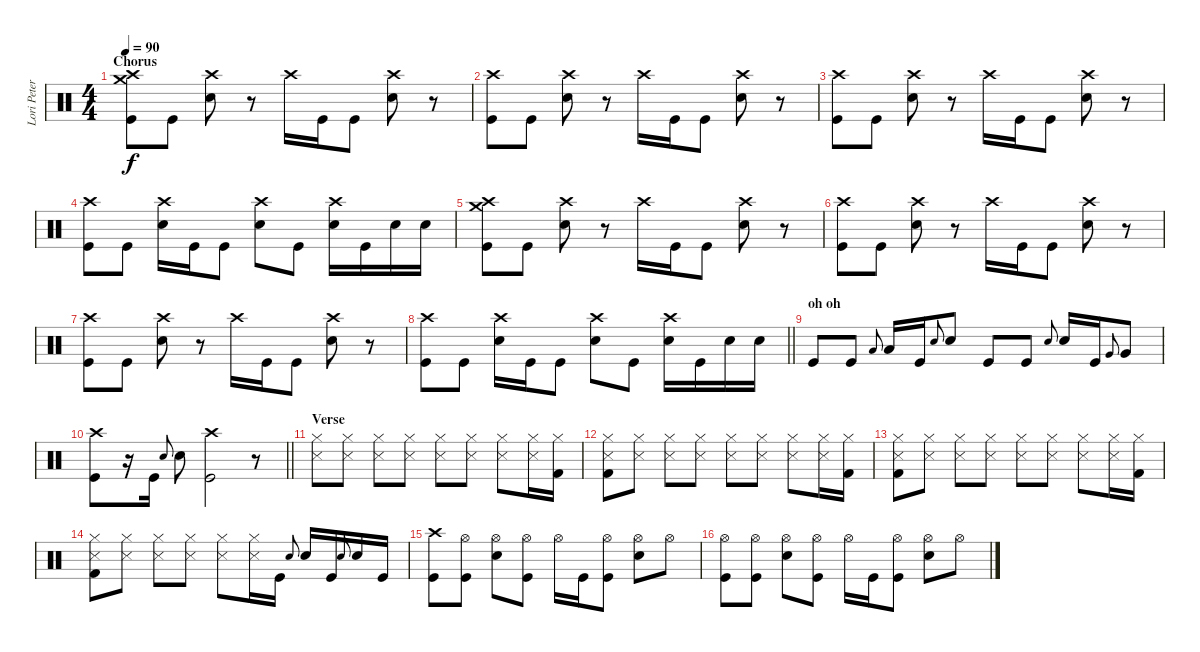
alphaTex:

\track ("Lori Peters" "Lori Peter") {instrument percussion}
\staff {score}
\articulation defaults
\ts (4 4)
\section ("" "Chorus")
\tempo 90
\clef neutral
\ks c
("Crash high (hit)" "Crash medium (hit)" "Kick (hit)").8{dy f volume 11} "Kick (hit)".8 ("Crash high (hit)" "Electric Snare (hit)").8 r.8 "Crash high (hit)".16 "Kick (hit)".16 "Kick (hit)".8 ("Crash high (hit)" "Electric Snare (hit)").8 r.8 |
("Crash high (hit)" "Kick (hit)").8 "Kick (hit)".8 ("Crash high (hit)" "Electric Snare (hit)").8 r.8 "Crash high (hit)".16 "Kick (hit)".16 "Kick (hit)".8 ("Crash high (hit)" "Electric Snare (hit)").8 r.8 |
("Crash high (hit)" "Kick (hit)").8 "Kick (hit)".8 ("Crash high (hit)" "Electric Snare (hit)").8 r.8 "Crash high (hit)".16 "Kick (hit)".16 "Kick (hit)".8 ("Crash high (hit)" "Electric Snare (hit)").8 r.8 |
("Crash high (hit)" "Kick (hit)").8 "Kick (hit)".8 ("Crash high (hit)" "Electric Snare (hit)").16 "Kick (hit)".16 "Kick (hit)".8 ("Crash high (hit)" "Electric Snare (hit)").8 "Kick (hit)".8 ("Crash high (hit)" "Electric Snare (hit)").16 "Kick (hit)".16 "Electric Snare (hit)".16 "Electric Snare (hit)".16 |
("Crash high (hit)" "Crash medium (hit)" "Kick (hit)").8 "Kick (hit)".8 ("Crash high (hit)" "Electric Snare (hit)").8 r.8 "Crash high (hit)".16 "Kick (hit)".16 "Kick (hit)".8 ("Crash high (hit)" "Electric Snare (hit)").8 r.8 |
("Crash high (hit)" "Kick (hit)").8 "Kick (hit)".8 ("Crash high (hit)" "Electric Snare (hit)").8 r.8 "Crash high (hit)".16 "Kick (hit)".16 "Kick (hit)".8 ("Crash high (hit)" "Electric Snare (hit)").8 r.8 |
("Crash high (hit)" "Kick (hit)").8 "Kick (hit)".8 ("Crash high (hit)" "Electric Snare (hit)").8 r.8 "Crash high (hit)".16 "Kick (hit)".16 "Kick (hit)".8 ("Crash high (hit)" "Electric Snare (hit)").8 r.8 |
\barLineRight lightlight
("Crash high (hit)" "Kick (hit)").8 "Kick (hit)".8 ("Crash high (hit)" "Electric Snare (hit)").16 "Kick (hit)".16 "Kick (hit)".8 ("Crash high (hit)" "Electric Snare (hit)").8 "Kick (hit)".8 ("Crash high (hit)" "Electric Snare (hit)").16 "Kick (hit)".16 "Electric Snare (hit)".16 "Electric Snare (hit)".16 |
\section ("" "oh oh")
"Kick (hit)".8 "Kick (hit)".8 "Low Tom (hit)".8{gr onbeat} "Low Tom (hit)".16 "Kick (hit)".16 "Electric Snare (hit)".8{gr onbeat} "Electric Snare (hit)".8 "Kick (hit)".8 "Kick (hit)".8 "Electric Snare (hit)".8{gr onbeat} "Electric Snare (hit)".16 "Kick (hit)".16 "Very Low Tom (hit)".8{gr onbeat} "Very Low Tom (hit)".8 |
\barLineRight lightlight
("Crash high (hit)" "Kick (hit)").8 r.16 "Kick (hit)".16 "Electric Snare (hit)".8{gr onbeat} "Electric Snare (hit)".8 ("Crash high (hit)" "Kick (hit)").2 r.8 |
\section ("" "Verse")
("Hi-Hat (closed)" "Snare (side stick) 3").8 ("Hi-Hat (closed)" "Snare (side stick) 3").8 ("Hi-Hat (closed)" "Snare (side stick) 3").8 ("Hi-Hat (closed)" "Snare (side stick) 3").8 ("Hi-Hat (closed)" "Snare (side stick) 3").8 ("Hi-Hat (closed)" "Snare (side stick) 3").8 ("Hi-Hat (closed)" "Snare (side stick) 3").8 ("Hi-Hat (closed)" "Snare (side stick) 3").16 ("Hi-Hat (closed)" "Kick (hit) 2").16 |
("Hi-Hat (closed)" "Snare (side stick) 3" "Kick (hit) 2").8 ("Hi-Hat (closed)" "Snare (side stick) 3").8 ("Hi-Hat (closed)" "Snare (side stick) 3").8 ("Hi-Hat (closed)" "Snare (side stick) 3").8 ("Hi-Hat (closed)" "Snare (side stick) 3").8 ("Hi-Hat (closed)" "Snare (side stick) 3").8 ("Hi-Hat (closed)" "Snare (side stick) 3").8 ("Hi-Hat (closed)" "Snare (side stick) 3").16 ("Hi-Hat (closed)" "Kick (hit) 2").16 |
("Hi-Hat (closed)" "Snare (side stick) 3" "Kick (hit) 2").8 ("Hi-Hat (closed)" "Snare (side stick) 3").8 ("Hi-Hat (closed)" "Snare (side stick) 3").8 ("Hi-Hat (closed)" "Snare (side stick) 3").8 ("Hi-Hat (closed)" "Snare (side stick) 3").8 ("Hi-Hat (closed)" "Snare (side stick) 3").8 ("Hi-Hat (closed)" "Snare (side stick) 3").8 ("Hi-Hat (closed)" "Snare (side stick) 3").16 ("Hi-Hat (closed)" "Kick (hit) 2").16 |
("Hi-Hat (closed)" "Snare (side stick) 3" "Kick (hit) 2").8 ("Hi-Hat (closed)" "Snare (side stick) 3").8 ("Hi-Hat (closed)" "Snare (side stick) 3").8 ("Hi-Hat (closed)" "Snare (side stick) 3").8 ("Hi-Hat (closed)" "Snare (side stick) 3").8 ("Hi-Hat (closed)" "Snare (side stick) 3").16 "Kick (hit)".16 "Electric Snare (hit)".8{gr onbeat} "Electric Snare (hit)".16 "Kick (hit)".16 "Electric Snare (hit)".8{gr onbeat} "Electric Snare (hit)".16 "Kick (hit)".16 |
("Crash high (hit)" "Kick (hit)").8 ("Hi-Hat (open)" "Kick (hit)").8 ("Hi-Hat (open)" "Electric Snare (hit)").8 ("Hi-Hat (open)" "Kick (hit)").8 "Hi-Hat (open)".16 "Kick (hit)".16 ("Hi-Hat (open)" "Kick (hit)").8 ("Hi-Hat (open)" "Electric Snare (hit)").8 "Hi-Hat (open)".8 |
("Hi-Hat (open)" "Kick (hit)").8 ("Hi-Hat (open)" "Kick (hit)").8 ("Hi-Hat (open)" "Electric Snare (hit)").8 ("Hi-Hat (open)" "Kick (hit)").8 "Hi-Hat (open)".16 "Kick (hit)".16 ("Hi-Hat (open)" "Kick (hit)").8 ("Hi-Hat (open)" "Electric Snare (hit)").8 "Hi-Hat (open)".8
